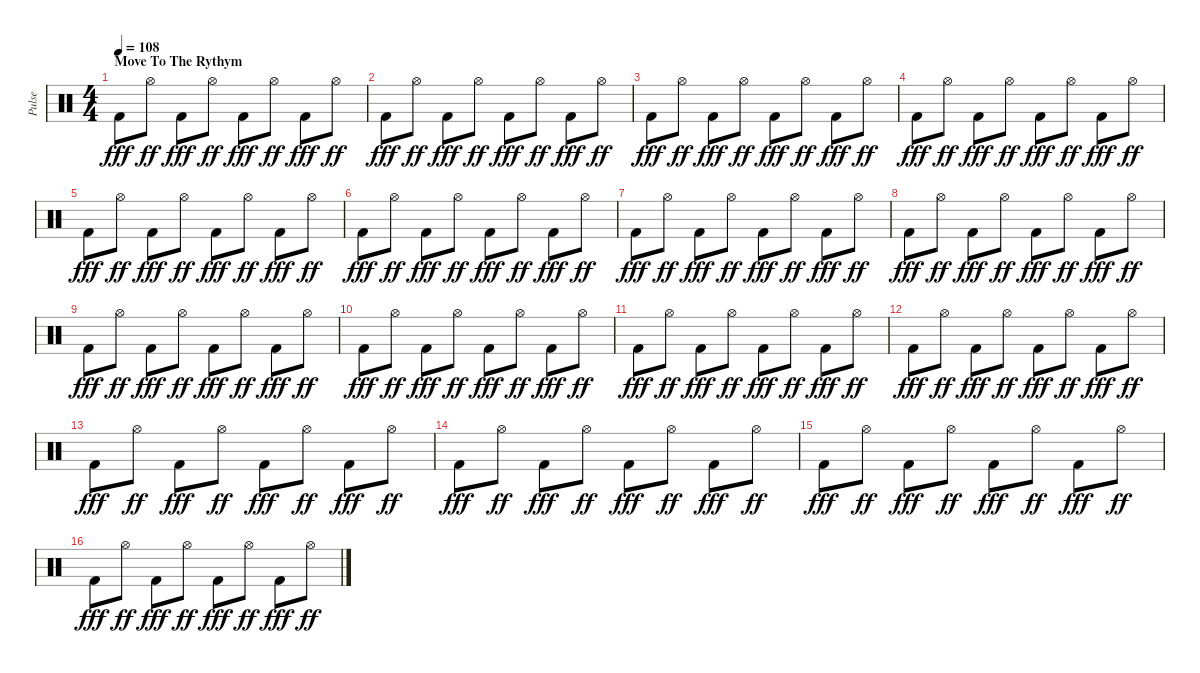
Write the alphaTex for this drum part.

\track ("Pulse" "Pulse") {instrument percussion}
\staff {score}
\articulation defaults
\ts (4 4)
\section ("" "Move To The Rythym")
\tempo 108
\clef neutral
\ks c "Kick (hit) 2".8{dy fff} "Hi-Hat (open)".8{dy ff} "Kick (hit) 2".8{dy fff} "Hi-Hat (open)".8{dy ff} "Kick (hit) 2".8{dy fff} "Hi-Hat (open)".8{dy ff} "Kick (hit) 2".8{dy fff} "Hi-Hat (open)".8{dy ff}
|
"Kick (hit) 2".8{dy fff} "Hi-Hat (open)".8{dy ff} "Kick (hit) 2".8{dy fff} "Hi-Hat (open)".8{dy ff} "Kick (hit) 2".8{dy fff} "Hi-Hat (open)".8{dy ff} "Kick (hit) 2".8{dy fff} "Hi-Hat (open)".8{dy ff} |
"Kick (hit) 2".8{dy fff} "Hi-Hat (open)".8{dy ff} "Kick (hit) 2".8{dy fff} "Hi-Hat (open)".8{dy ff} "Kick (hit) 2".8{dy fff} "Hi-Hat (open)".8{dy ff} "Kick (hit) 2".8{dy fff} "Hi-Hat (open)".8{dy ff} |
"Kick (hit) 2".8{dy fff} "Hi-Hat (open)".8{dy ff} "Kick (hit) 2".8{dy fff} "Hi-Hat (open)".8{dy ff} "Kick (hit) 2".8{dy fff} "Hi-Hat (open)".8{dy ff} "Kick (hit) 2".8{dy fff} "Hi-Hat (open)".8{dy ff} |
"Kick (hit) 2".8{dy fff} "Hi-Hat (open)".8{dy ff} "Kick (hit) 2".8{dy fff} "Hi-Hat (open)".8{dy ff} "Kick (hit) 2".8{dy fff} "Hi-Hat (open)".8{dy ff} "Kick (hit) 2".8{dy fff} "Hi-Hat (open)".8{dy ff} |
"Kick (hit) 2".8{dy fff} "Hi-Hat (open)".8{dy ff} "Kick (hit) 2".8{dy fff} "Hi-Hat (open)".8{dy ff} "Kick (hit) 2".8{dy fff} "Hi-Hat (open)".8{dy ff} "Kick (hit) 2".8{dy fff} "Hi-Hat (open)".8{dy ff} |
"Kick (hit) 2".8{dy fff} "Hi-Hat (open)".8{dy ff} "Kick (hit) 2".8{dy fff} "Hi-Hat (open)".8{dy ff} "Kick (hit) 2".8{dy fff} "Hi-Hat (open)".8{dy ff} "Kick (hit) 2".8{dy fff} "Hi-Hat (open)".8{dy ff} |
"Kick (hit) 2".8{dy fff} "Hi-Hat (open)".8{dy ff} "Kick (hit) 2".8{dy fff} "Hi-Hat (open)".8{dy ff} "Kick (hit) 2".8{dy fff} "Hi-Hat (open)".8{dy ff} "Kick (hit) 2".8{dy fff} "Hi-Hat (open)".8{dy ff} |
"Kick (hit) 2".8{dy fff} "Hi-Hat (open)".8{dy ff} "Kick (hit) 2".8{dy fff} "Hi-Hat (open)".8{dy ff} "Kick (hit) 2".8{dy fff} "Hi-Hat (open)".8{dy ff} "Kick (hit) 2".8{dy fff} "Hi-Hat (open)".8{dy ff} |
"Kick (hit) 2".8{dy fff} "Hi-Hat (open)".8{dy ff} "Kick (hit) 2".8{dy fff} "Hi-Hat (open)".8{dy ff} "Kick (hit) 2".8{dy fff} "Hi-Hat (open)".8{dy ff} "Kick (hit) 2".8{dy fff} "Hi-Hat (open)".8{dy ff} |
"Kick (hit) 2".8{dy fff} "Hi-Hat (open)".8{dy ff} "Kick (hit) 2".8{dy fff} "Hi-Hat (open)".8{dy ff} "Kick (hit) 2".8{dy fff} "Hi-Hat (open)".8{dy ff} "Kick (hit) 2".8{dy fff} "Hi-Hat (open)".8{dy ff} |
"Kick (hit) 2".8{dy fff} "Hi-Hat (open)".8{dy ff} "Kick (hit) 2".8{dy fff} "Hi-Hat (open)".8{dy ff} "Kick (hit) 2".8{dy fff} "Hi-Hat (open)".8{dy ff} "Kick (hit) 2".8{dy fff} "Hi-Hat (open)".8{dy ff} |
"Kick (hit) 2".8{dy fff} "Hi-Hat (open)".8{dy ff} "Kick (hit) 2".8{dy fff} "Hi-Hat (open)".8{dy ff} "Kick (hit) 2".8{dy fff} "Hi-Hat (open)".8{dy ff} "Kick (hit) 2".8{dy fff} "Hi-Hat (open)".8{dy ff} |
"Kick (hit) 2".8{dy fff} "Hi-Hat (open)".8{dy ff} "Kick (hit) 2".8{dy fff} "Hi-Hat (open)".8{dy ff} "Kick (hit) 2".8{dy fff} "Hi-Hat (open)".8{dy ff} "Kick (hit) 2".8{dy fff} "Hi-Hat (open)".8{dy ff} |
"Kick (hit) 2".8{dy fff} "Hi-Hat (open)".8{dy ff} "Kick (hit) 2".8{dy fff} "Hi-Hat (open)".8{dy ff} "Kick (hit) 2".8{dy fff} "Hi-Hat (open)".8{dy ff} "Kick (hit) 2".8{dy fff} "Hi-Hat (open)".8{dy ff} |
"Kick (hit) 2".8{dy fff} "Hi-Hat (open)".8{dy ff} "Kick (hit) 2".8{dy fff} "Hi-Hat (open)".8{dy ff} "Kick (hit) 2".8{dy fff} "Hi-Hat (open)".8{dy ff} "Kick (hit) 2".8{dy fff} "Hi-Hat (open)".8{dy ff}
